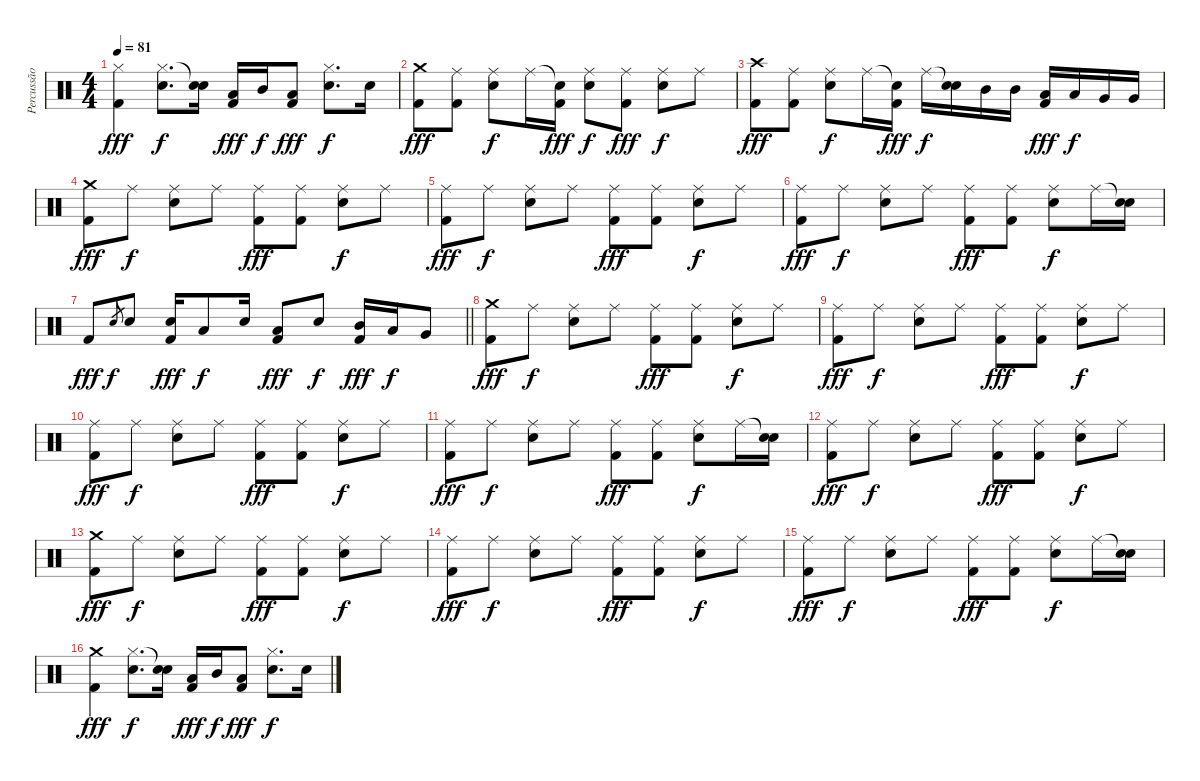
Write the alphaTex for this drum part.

\track ("Percussão" "Percussão") {instrument percussion}
\staff {score}
\articulation defaults
\ts (4 4)
\tempo 81
\clef neutral
\ks c
("Hi-Hat (closed)" "Kick (hit) 2").4{dy fff} ("Hi-Hat (closed)" "Snare (hit) 2").8{d dy f} ("Snare (hit)"{t} "Snare (hit) 2").16 ("Low Tom (hit)" "Kick (hit) 2").16{dy fff} "Mid Tom (hit)".16{dy f} ("Low Tom (hit)" "Kick (hit) 2").8{dy fff} ("Hi-Hat (closed)" "Snare (hit) 2").8{d dy f} "Snare (hit) 2".16 |
("Crash medium (hit)" "Kick (hit) 2").8{dy fff} ("Ride (middle)" "Kick (hit) 2").8 ("Ride (middle)" "Snare (hit) 2").8{dy f} "Ride (middle)".16 ("Snare (hit)"{t} "Kick (hit) 2").16{dy fff} ("Ride (middle)" "Snare (hit) 2").8{dy f} ("Ride (middle)" "Kick (hit) 2").8{dy fff} ("Ride (middle)" "Snare (hit) 2").8{dy f} "Ride (middle)".8 |
("Crash high (hit)" "Kick (hit) 2").8{dy fff} ("Ride (middle)" "Kick (hit) 2").8 ("Ride (middle)" "Snare (hit) 2").8{dy f} "Ride (middle)".16 ("Snare (hit)"{t} "Kick (hit) 2").16{dy fff} "Ride (middle)".16{dy f} ("Snare (hit)"{t} "Snare (hit) 2").16 "Mid Tom (hit)".16 "Mid Tom (hit)".16 ("Low Tom (hit)" "Kick (hit) 2").16{dy fff} "Low Tom (hit)".16{dy f} "Very Low Tom (hit)".16 "Very Low Tom (hit)".16 |
("Crash medium (hit)" "Kick (hit) 2").8{dy fff} "Ride (middle)".8{dy f} ("Ride (middle)" "Snare (hit) 2").8 "Ride (middle)".8 ("Ride (middle)" "Kick (hit) 2").8{dy fff} ("Ride (middle)" "Kick (hit) 2").8 ("Ride (middle)" "Snare (hit) 2").8{dy f} "Ride (middle)".8 |
("Ride (middle)" "Kick (hit) 2").8{dy fff} "Ride (middle)".8{dy f} ("Ride (middle)" "Snare (hit) 2").8 "Ride (middle)".8 ("Ride (middle)" "Kick (hit) 2").8{dy fff} ("Ride (middle)" "Kick (hit) 2").8 ("Ride (middle)" "Snare (hit) 2").8{dy f} "Ride (middle)".8 |
("Ride (middle)" "Kick (hit) 2").8{dy fff} "Ride (middle)".8{dy f} ("Ride (middle)" "Snare (hit) 2").8 "Ride (middle)".8 ("Ride (middle)" "Kick (hit) 2").8{dy fff} ("Ride (middle)" "Kick (hit) 2").8 ("Ride (middle)" "Snare (hit) 2").8{dy f} "Ride (middle)".16 ("Snare (hit)"{t} "Snare (hit) 2").16 |
\barLineRight lightlight "Kick (hit) 2".8{dy fff} "Snare (hit) 2".8{gr dy f} "Snare (hit) 2".8
("Snare (hit) 2" "Kick (hit) 2").16{dy fff} "Low Tom (hit)".8{dy f} "Snare (hit) 2".16 ("Low Tom (hit)" "Kick (hit) 2").8{dy fff} "Snare (hit) 2".8{dy f} ("Mid Tom (hit)" "Kick (hit) 2").16{dy fff} "Low Tom (hit)".16{dy f} "Very Low Tom (hit)".8 |
("Crash medium (hit)" "Kick (hit) 2").8{dy fff} "Ride (middle)".8{dy f} ("Ride (middle)" "Snare (hit) 2").8 "Ride (middle)".8 ("Ride (middle)" "Kick (hit) 2").8{dy fff} ("Ride (middle)" "Kick (hit) 2").8 ("Ride (middle)" "Snare (hit) 2").8{dy f} "Ride (middle)".8 |
("Ride (middle)" "Kick (hit) 2").8{dy fff} "Ride (middle)".8{dy f} ("Ride (middle)" "Snare (hit) 2").8 "Ride (middle)".8 ("Ride (middle)" "Kick (hit) 2").8{dy fff} ("Ride (middle)" "Kick (hit) 2").8 ("Ride (middle)" "Snare (hit) 2").8{dy f} "Ride (middle)".8 |
("Ride (middle)" "Kick (hit) 2").8{dy fff} "Ride (middle)".8{dy f} ("Ride (middle)" "Snare (hit) 2").8 "Ride (middle)".8 ("Ride (middle)" "Kick (hit) 2").8{dy fff} ("Ride (middle)" "Kick (hit) 2").8 ("Ride (middle)" "Snare (hit) 2").8{dy f} "Ride (middle)".8 |
("Ride (middle)" "Kick (hit) 2").8{dy fff} "Ride (middle)".8{dy f} ("Ride (middle)" "Snare (hit) 2").8 "Ride (middle)".8 ("Ride (middle)" "Kick (hit) 2").8{dy fff} ("Ride (middle)" "Kick (hit) 2").8 ("Ride (middle)" "Snare (hit) 2").8{dy f} "Ride (middle)".16 ("Snare (hit)"{t} "Snare (hit) 2").16 |
("Ride (middle)" "Kick (hit) 2").8{dy fff} "Ride (middle)".8{dy f} ("Ride (middle)" "Snare (hit) 2").8 "Ride (middle)".8 ("Ride (middle)" "Kick (hit) 2").8{dy fff} ("Ride (middle)" "Kick (hit) 2").8 ("Ride (middle)" "Snare (hit) 2").8{dy f} "Ride (middle)".8 |
("Crash medium (hit)" "Kick (hit) 2").8{dy fff} "Ride (middle)".8{dy f} ("Ride (middle)" "Snare (hit) 2").8 "Ride (middle)".8 ("Ride (middle)" "Kick (hit) 2").8{dy fff} ("Ride (middle)" "Kick (hit) 2").8 ("Ride (middle)" "Snare (hit) 2").8{dy f} "Ride (middle)".8 |
("Ride (middle)" "Kick (hit) 2").8{dy fff} "Ride (middle)".8{dy f} ("Ride (middle)" "Snare (hit) 2").8 "Ride (middle)".8 ("Ride (middle)" "Kick (hit) 2").8{dy fff} ("Ride (middle)" "Kick (hit) 2").8 ("Ride (middle)" "Snare (hit) 2").8{dy f} "Ride (middle)".8 |
("Ride (middle)" "Kick (hit) 2").8{dy fff} "Ride (middle)".8{dy f} ("Ride (middle)" "Snare (hit) 2").8 "Ride (middle)".8 ("Ride (middle)" "Kick (hit) 2").8{dy fff} ("Ride (middle)" "Kick (hit) 2").8 ("Ride (middle)" "Snare (hit) 2").8{dy f} "Ride (middle)".16 ("Snare (hit)"{t} "Snare (hit) 2").16 |
("Crash medium (hit)" "Kick (hit) 2").4{dy fff} ("Hi-Hat (closed)" "Snare (hit) 2").8{d dy f} ("Snare (hit)"{t} "Snare (hit) 2").16 ("Low Tom (hit)" "Kick (hit) 2").16{dy fff} "Mid Tom (hit)".16{dy f} ("Low Tom (hit)" "Kick (hit) 2").8{dy fff} ("Hi-Hat (closed)" "Snare (hit) 2").8{d dy f} "Snare (hit) 2".16
